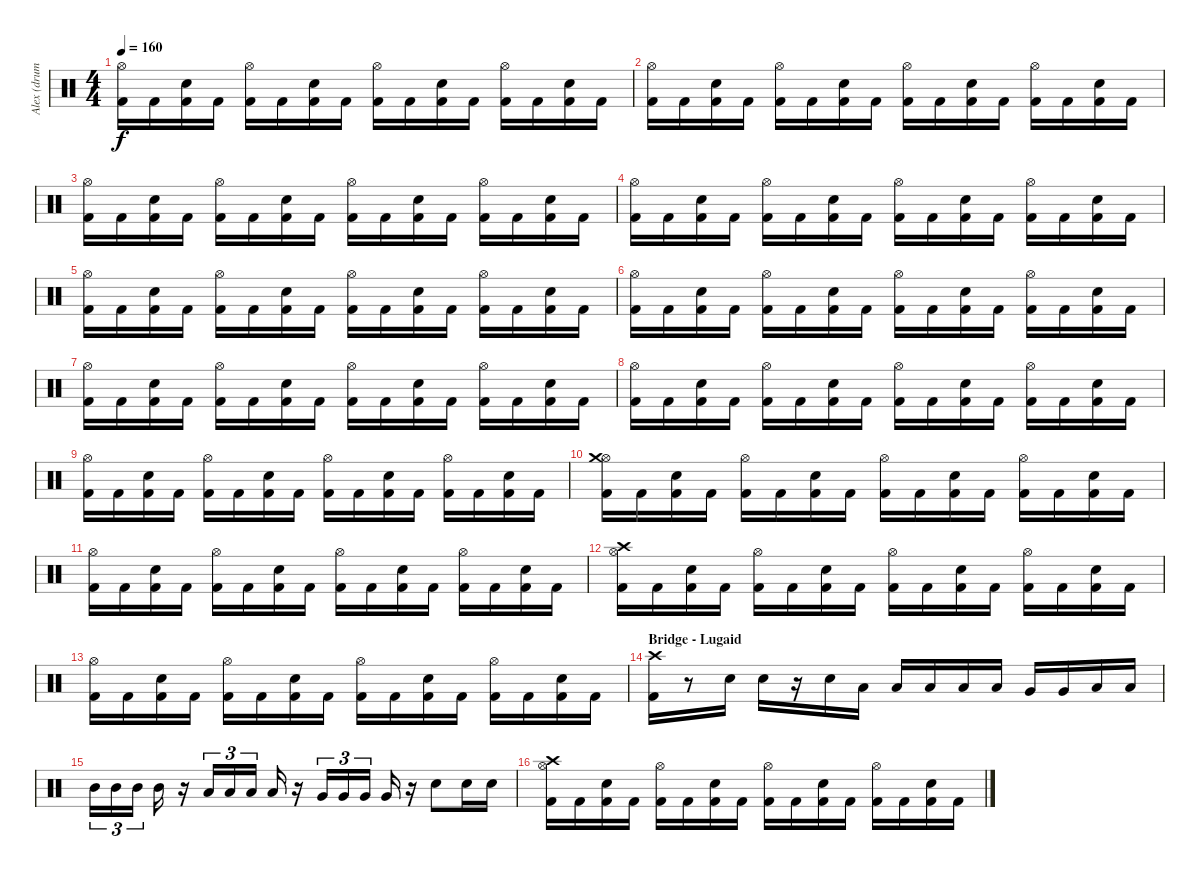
\track ("Alex (drums)" "Alex (drum") {instrument percussion}
\staff {score}
\articulation defaults
\ts (4 4)
\tempo 160
\clef neutral
\ks c
("Hi-Hat (open)" "Kick (hit) 2").16{dy f} "Kick (hit) 2".16 ("Snare (hit) 2" "Kick (hit) 2").16 "Kick (hit) 2".16 ("Hi-Hat (open)" "Kick (hit) 2").16 "Kick (hit) 2".16 ("Snare (hit) 2" "Kick (hit) 2").16 "Kick (hit) 2".16 ("Hi-Hat (open)" "Kick (hit) 2").16 "Kick (hit) 2".16 ("Snare (hit) 2" "Kick (hit) 2").16 "Kick (hit) 2".16 ("Hi-Hat (open)" "Kick (hit) 2").16 "Kick (hit) 2".16 ("Snare (hit) 2" "Kick (hit) 2").16 "Kick (hit) 2".16 |
("Hi-Hat (open)" "Kick (hit) 2").16 "Kick (hit) 2".16 ("Snare (hit) 2" "Kick (hit) 2").16 "Kick (hit) 2".16 ("Hi-Hat (open)" "Kick (hit) 2").16 "Kick (hit) 2".16 ("Snare (hit) 2" "Kick (hit) 2").16 "Kick (hit) 2".16 ("Hi-Hat (open)" "Kick (hit) 2").16 "Kick (hit) 2".16 ("Snare (hit) 2" "Kick (hit) 2").16 "Kick (hit) 2".16 ("Hi-Hat (open)" "Kick (hit) 2").16 "Kick (hit) 2".16 ("Snare (hit) 2" "Kick (hit) 2").16 "Kick (hit) 2".16 |
("Hi-Hat (open)" "Kick (hit) 2").16 "Kick (hit) 2".16 ("Snare (hit) 2" "Kick (hit) 2").16 "Kick (hit) 2".16 ("Hi-Hat (open)" "Kick (hit) 2").16 "Kick (hit) 2".16 ("Snare (hit) 2" "Kick (hit) 2").16 "Kick (hit) 2".16 ("Hi-Hat (open)" "Kick (hit) 2").16 "Kick (hit) 2".16 ("Snare (hit) 2" "Kick (hit) 2").16 "Kick (hit) 2".16 ("Hi-Hat (open)" "Kick (hit) 2").16 "Kick (hit) 2".16 ("Snare (hit) 2" "Kick (hit) 2").16 "Kick (hit) 2".16 |
("Hi-Hat (open)" "Kick (hit) 2").16 "Kick (hit) 2".16 ("Snare (hit) 2" "Kick (hit) 2").16 "Kick (hit) 2".16 ("Hi-Hat (open)" "Kick (hit) 2").16 "Kick (hit) 2".16 ("Snare (hit) 2" "Kick (hit) 2").16 "Kick (hit) 2".16 ("Hi-Hat (open)" "Kick (hit) 2").16 "Kick (hit) 2".16 ("Snare (hit) 2" "Kick (hit) 2").16 "Kick (hit) 2".16 ("Hi-Hat (open)" "Kick (hit) 2").16 "Kick (hit) 2".16 ("Snare (hit) 2" "Kick (hit) 2").16 "Kick (hit) 2".16 |
("Hi-Hat (open)" "Kick (hit) 2").16 "Kick (hit) 2".16 ("Snare (hit) 2" "Kick (hit) 2").16 "Kick (hit) 2".16 ("Hi-Hat (open)" "Kick (hit) 2").16 "Kick (hit) 2".16 ("Snare (hit) 2" "Kick (hit) 2").16 "Kick (hit) 2".16 ("Hi-Hat (open)" "Kick (hit) 2").16 "Kick (hit) 2".16 ("Snare (hit) 2" "Kick (hit) 2").16 "Kick (hit) 2".16 ("Hi-Hat (open)" "Kick (hit) 2").16 "Kick (hit) 2".16 ("Snare (hit) 2" "Kick (hit) 2").16 "Kick (hit) 2".16 |
("Hi-Hat (open)" "Kick (hit) 2").16 "Kick (hit) 2".16 ("Snare (hit) 2" "Kick (hit) 2").16 "Kick (hit) 2".16 ("Hi-Hat (open)" "Kick (hit) 2").16 "Kick (hit) 2".16 ("Snare (hit) 2" "Kick (hit) 2").16 "Kick (hit) 2".16 ("Hi-Hat (open)" "Kick (hit) 2").16 "Kick (hit) 2".16 ("Snare (hit) 2" "Kick (hit) 2").16 "Kick (hit) 2".16 ("Hi-Hat (open)" "Kick (hit) 2").16 "Kick (hit) 2".16 ("Snare (hit) 2" "Kick (hit) 2").16 "Kick (hit) 2".16 |
("Hi-Hat (open)" "Kick (hit) 2").16 "Kick (hit) 2".16 ("Snare (hit) 2" "Kick (hit) 2").16 "Kick (hit) 2".16 ("Hi-Hat (open)" "Kick (hit) 2").16 "Kick (hit) 2".16 ("Snare (hit) 2" "Kick (hit) 2").16 "Kick (hit) 2".16 ("Hi-Hat (open)" "Kick (hit) 2").16 "Kick (hit) 2".16 ("Snare (hit) 2" "Kick (hit) 2").16 "Kick (hit) 2".16 ("Hi-Hat (open)" "Kick (hit) 2").16 "Kick (hit) 2".16 ("Snare (hit) 2" "Kick (hit) 2").16 "Kick (hit) 2".16 |
("Hi-Hat (open)" "Kick (hit) 2").16 "Kick (hit) 2".16 ("Snare (hit) 2" "Kick (hit) 2").16 "Kick (hit) 2".16 ("Hi-Hat (open)" "Kick (hit) 2").16 "Kick (hit) 2".16 ("Snare (hit) 2" "Kick (hit) 2").16 "Kick (hit) 2".16 ("Hi-Hat (open)" "Kick (hit) 2").16 "Kick (hit) 2".16 ("Snare (hit) 2" "Kick (hit) 2").16 "Kick (hit) 2".16 ("Hi-Hat (open)" "Kick (hit) 2").16 "Kick (hit) 2".16 ("Snare (hit) 2" "Kick (hit) 2").16 "Kick (hit) 2".16 |
("Hi-Hat (open)" "Kick (hit) 2").16 "Kick (hit) 2".16 ("Snare (hit) 2" "Kick (hit) 2").16 "Kick (hit) 2".16 ("Hi-Hat (open)" "Kick (hit) 2").16 "Kick (hit) 2".16 ("Snare (hit) 2" "Kick (hit) 2").16 "Kick (hit) 2".16 ("Hi-Hat (open)" "Kick (hit) 2").16 "Kick (hit) 2".16 ("Snare (hit) 2" "Kick (hit) 2").16 "Kick (hit) 2".16 ("Hi-Hat (open)" "Kick (hit) 2").16 "Kick (hit) 2".16 ("Snare (hit) 2" "Kick (hit) 2").16 "Kick (hit) 2".16 |
("Hi-Hat (open)" "Kick (hit) 2" "Crash medium (hit)").16 "Kick (hit) 2".16 ("Snare (hit) 2" "Kick (hit) 2").16 "Kick (hit) 2".16 ("Hi-Hat (open)" "Kick (hit) 2").16 "Kick (hit) 2".16 ("Snare (hit) 2" "Kick (hit) 2").16 "Kick (hit) 2".16 ("Hi-Hat (open)" "Kick (hit) 2").16 "Kick (hit) 2".16 ("Snare (hit) 2" "Kick (hit) 2").16 "Kick (hit) 2".16 ("Hi-Hat (open)" "Kick (hit) 2").16 "Kick (hit) 2".16 ("Snare (hit) 2" "Kick (hit) 2").16 "Kick (hit) 2".16 |
("Hi-Hat (open)" "Kick (hit) 2").16 "Kick (hit) 2".16 ("Snare (hit) 2" "Kick (hit) 2").16 "Kick (hit) 2".16 ("Hi-Hat (open)" "Kick (hit) 2").16 "Kick (hit) 2".16 ("Snare (hit) 2" "Kick (hit) 2").16 "Kick (hit) 2".16 ("Hi-Hat (open)" "Kick (hit) 2").16 "Kick (hit) 2".16 ("Snare (hit) 2" "Kick (hit) 2").16 "Kick (hit) 2".16 ("Hi-Hat (open)" "Kick (hit) 2").16 "Kick (hit) 2".16 ("Snare (hit) 2" "Kick (hit) 2").16 "Kick (hit) 2".16 |
("Hi-Hat (open)" "Kick (hit) 2" "Crash high (hit)").16 "Kick (hit) 2".16 ("Snare (hit) 2" "Kick (hit) 2").16 "Kick (hit) 2".16 ("Hi-Hat (open)" "Kick (hit) 2").16 "Kick (hit) 2".16 ("Snare (hit) 2" "Kick (hit) 2").16 "Kick (hit) 2".16 ("Hi-Hat (open)" "Kick (hit) 2").16 "Kick (hit) 2".16 ("Snare (hit) 2" "Kick (hit) 2").16 "Kick (hit) 2".16 ("Hi-Hat (open)" "Kick (hit) 2").16 "Kick (hit) 2".16 ("Snare (hit) 2" "Kick (hit) 2").16 "Kick (hit) 2".16 |
("Hi-Hat (open)" "Kick (hit) 2").16 "Kick (hit) 2".16 ("Snare (hit) 2" "Kick (hit) 2").16 "Kick (hit) 2".16 ("Hi-Hat (open)" "Kick (hit) 2").16 "Kick (hit) 2".16 ("Snare (hit) 2" "Kick (hit) 2").16 "Kick (hit) 2".16 ("Hi-Hat (open)" "Kick (hit) 2").16 "Kick (hit) 2".16 ("Snare (hit) 2" "Kick (hit) 2").16 "Kick (hit) 2".16 ("Hi-Hat (open)" "Kick (hit) 2").16 "Kick (hit) 2".16 ("Snare (hit) 2" "Kick (hit) 2").16 "Kick (hit) 2".16 |
\section ("" "Bridge - Lugaid")
("Kick (hit) 2" "Crash high (hit)").16 r.8 "Snare (hit) 2".16 "Snare (hit) 2".16 r.16 "Snare (hit) 2".16 "Low Tom (hit)".16 "Low Tom (hit)".16 "Low Tom (hit)".16 "Low Tom (hit)".16 "Low Tom (hit)".16 "Very Low Tom (hit)".16 "Very Low Tom (hit)".16 "Low Tom (hit)".16 "Low Tom (hit)".16 |
"Mid Tom (hit)".16{tu (3 2)} "Mid Tom (hit)".16{tu (3 2)} "Mid Tom (hit)".16{tu (3 2)} "Mid Tom (hit)".16 r.16 "Low Tom (hit)".16{tu (3 2)} "Low Tom (hit)".16{tu (3 2)} "Low Tom (hit)".16{tu (3 2)} "Low Tom (hit)".16 r.16 "Very Low Tom (hit)".16{tu (3 2)} "Very Low Tom (hit)".16{tu (3 2)} "Very Low Tom (hit)".16{tu (3 2)} "Very Low Tom (hit)".16 r.16 "Snare (hit) 2".8 "Snare (hit) 2".16 "Snare (hit) 2".16 |
("Hi-Hat (open)" "Kick (hit) 2" "Crash high (hit)").16 "Kick (hit) 2".16 ("Snare (hit) 2" "Kick (hit) 2").16 "Kick (hit) 2".16 ("Hi-Hat (open)" "Kick (hit) 2").16 "Kick (hit) 2".16 ("Snare (hit) 2" "Kick (hit) 2").16 "Kick (hit) 2".16 ("Hi-Hat (open)" "Kick (hit) 2").16 "Kick (hit) 2".16 ("Snare (hit) 2" "Kick (hit) 2").16 "Kick (hit) 2".16 ("Hi-Hat (open)" "Kick (hit) 2").16 "Kick (hit) 2".16 ("Snare (hit) 2" "Kick (hit) 2").16 "Kick (hit) 2".16
